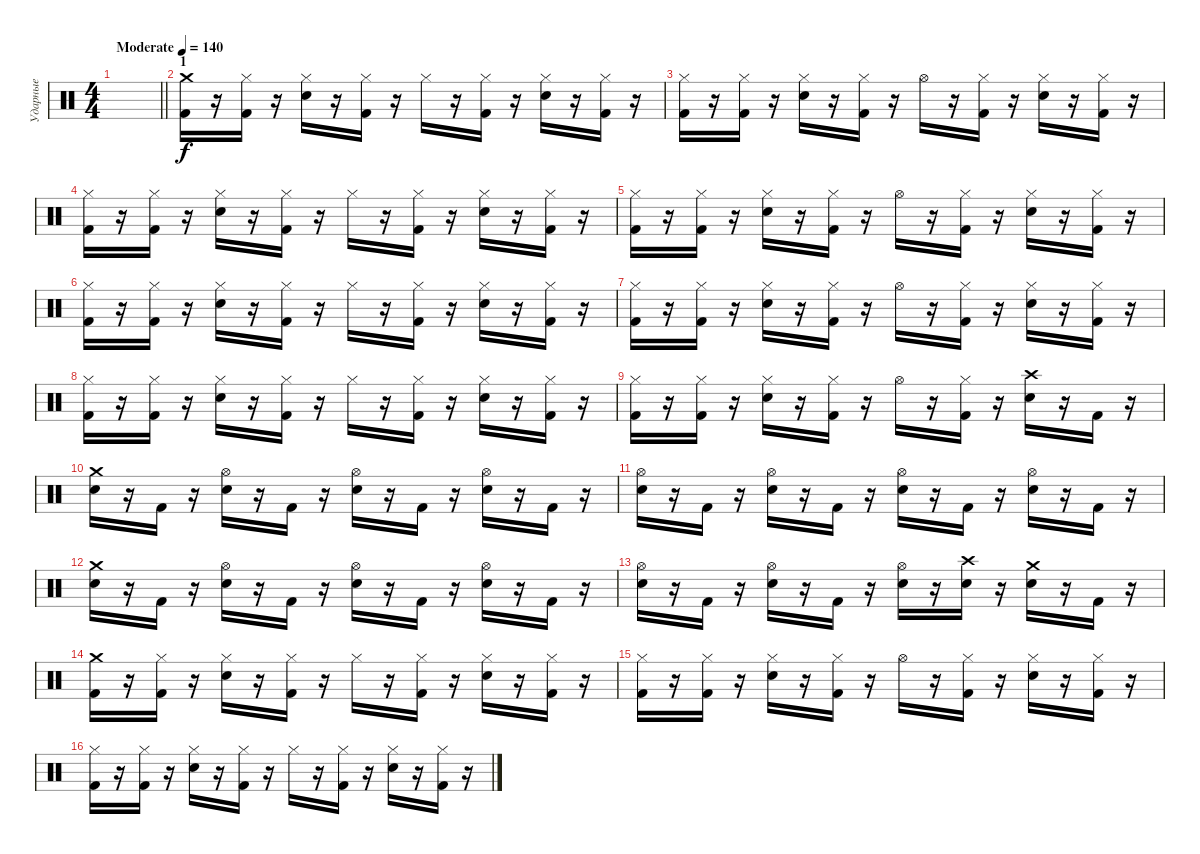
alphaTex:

\track ("Ударные" "Ударные") {instrument percussion}
\staff {score}
\articulation defaults
\ts (4 4)
\tempo (140 "Moderate")
\clef neutral
\barLineRight lightlight
\ks c
|
\section ("" "1")
("Crash medium (hit)" "Kick (hit) 2").16 r.16 ("Hi-Hat (closed)" "Kick (hit) 2").16 r.16 ("Hi-Hat (closed)" "Electric Snare (hit)").16 r.16 ("Hi-Hat (closed)" "Kick (hit) 2").16 r.16 "Hi-Hat (closed)".16 r.16 ("Hi-Hat (closed)" "Kick (hit) 2").16 r.16 ("Hi-Hat (closed)" "Electric Snare (hit)").16 r.16 ("Hi-Hat (closed)" "Kick (hit) 2").16 r.16 |
("Hi-Hat (closed)" "Kick (hit) 2").16 r.16 ("Hi-Hat (closed)" "Kick (hit) 2").16 r.16 ("Hi-Hat (closed)" "Electric Snare (hit)").16 r.16 ("Hi-Hat (closed)" "Kick (hit) 2").16 r.16 "Hi-Hat (open)".16 r.16 ("Hi-Hat (closed)" "Kick (hit) 2").16 r.16 ("Hi-Hat (closed)" "Electric Snare (hit)").16 r.16 ("Hi-Hat (closed)" "Kick (hit) 2").16 r.16 |
("Hi-Hat (closed)" "Kick (hit) 2").16 r.16 ("Hi-Hat (closed)" "Kick (hit) 2").16 r.16 ("Hi-Hat (closed)" "Electric Snare (hit)").16 r.16 ("Hi-Hat (closed)" "Kick (hit) 2").16 r.16 "Hi-Hat (closed)".16 r.16 ("Hi-Hat (closed)" "Kick (hit) 2").16 r.16 ("Hi-Hat (closed)" "Electric Snare (hit)").16 r.16 ("Hi-Hat (closed)" "Kick (hit) 2").16 r.16 |
("Hi-Hat (closed)" "Kick (hit) 2").16 r.16 ("Hi-Hat (closed)" "Kick (hit) 2").16 r.16 ("Hi-Hat (closed)" "Electric Snare (hit)").16 r.16 ("Hi-Hat (closed)" "Kick (hit) 2").16 r.16 "Hi-Hat (open)".16 r.16 ("Hi-Hat (closed)" "Kick (hit) 2").16 r.16 ("Hi-Hat (closed)" "Electric Snare (hit)").16 r.16 ("Hi-Hat (closed)" "Kick (hit) 2").16 r.16 |
("Hi-Hat (closed)" "Kick (hit) 2").16 r.16 ("Hi-Hat (closed)" "Kick (hit) 2").16 r.16 ("Hi-Hat (closed)" "Electric Snare (hit)").16 r.16 ("Hi-Hat (closed)" "Kick (hit) 2").16 r.16 "Hi-Hat (closed)".16 r.16 ("Hi-Hat (closed)" "Kick (hit) 2").16 r.16 ("Hi-Hat (closed)" "Electric Snare (hit)").16 r.16 ("Hi-Hat (closed)" "Kick (hit) 2").16 r.16 |
("Hi-Hat (closed)" "Kick (hit) 2").16 r.16 ("Hi-Hat (closed)" "Kick (hit) 2").16 r.16 ("Hi-Hat (closed)" "Electric Snare (hit)").16 r.16 ("Hi-Hat (closed)" "Kick (hit) 2").16 r.16 "Hi-Hat (open)".16 r.16 ("Hi-Hat (closed)" "Kick (hit) 2").16 r.16 ("Hi-Hat (closed)" "Electric Snare (hit)").16 r.16 ("Hi-Hat (closed)" "Kick (hit) 2").16 r.16 |
("Hi-Hat (closed)" "Kick (hit) 2").16 r.16 ("Hi-Hat (closed)" "Kick (hit) 2").16 r.16 ("Hi-Hat (closed)" "Electric Snare (hit)").16 r.16 ("Hi-Hat (closed)" "Kick (hit) 2").16 r.16 "Hi-Hat (closed)".16 r.16 ("Hi-Hat (closed)" "Kick (hit) 2").16 r.16 ("Hi-Hat (closed)" "Electric Snare (hit)").16 r.16 ("Hi-Hat (closed)" "Kick (hit) 2").16 r.16 |
("Hi-Hat (closed)" "Kick (hit) 2").16 r.16 ("Hi-Hat (closed)" "Kick (hit) 2").16 r.16 ("Hi-Hat (closed)" "Electric Snare (hit)").16 r.16 ("Hi-Hat (closed)" "Kick (hit) 2").16 r.16 "Hi-Hat (open)".16 r.16 ("Hi-Hat (closed)" "Kick (hit) 2").16 r.16 ("Crash high (hit)" "Electric Snare (hit)").16 r.16 "Kick (hit) 2".16 r.16 |
("Crash medium (hit)" "Electric Snare (hit)").16 r.16 "Kick (hit) 2".16 r.16 ("Hi-Hat (open)" "Electric Snare (hit)").16 r.16 "Kick (hit) 2".16 r.16 ("Hi-Hat (open)" "Electric Snare (hit)").16 r.16 "Kick (hit) 2".16 r.16 ("Hi-Hat (open)" "Electric Snare (hit)").16 r.16 "Kick (hit) 2".16 r.16 |
("Hi-Hat (open)" "Electric Snare (hit)").16 r.16 "Kick (hit) 2".16 r.16 ("Hi-Hat (open)" "Electric Snare (hit)").16 r.16 "Kick (hit) 2".16 r.16 ("Hi-Hat (open)" "Electric Snare (hit)").16 r.16 "Kick (hit) 2".16 r.16 ("Hi-Hat (open)" "Electric Snare (hit)").16 r.16 "Kick (hit) 2".16 r.16 |
("Crash medium (hit)" "Electric Snare (hit)").16 r.16 "Kick (hit) 2".16 r.16 ("Hi-Hat (open)" "Electric Snare (hit)").16 r.16 "Kick (hit) 2".16 r.16 ("Hi-Hat (open)" "Electric Snare (hit)").16 r.16 "Kick (hit) 2".16 r.16 ("Hi-Hat (open)" "Electric Snare (hit)").16 r.16 "Kick (hit) 2".16 r.16 |
("Hi-Hat (open)" "Electric Snare (hit)").16 r.16 "Kick (hit) 2".16 r.16 ("Hi-Hat (open)" "Electric Snare (hit)").16 r.16 "Kick (hit) 2".16 r.16 ("Hi-Hat (open)" "Electric Snare (hit)").16 r.16 ("Crash high (hit)" "Electric Snare (hit)").16 r.16 ("Crash medium (hit)" "Electric Snare (hit)").16 r.16 "Kick (hit) 2".16 r.16 |
("Crash medium (hit)" "Kick (hit) 2").16 r.16 ("Hi-Hat (closed)" "Kick (hit) 2").16 r.16 ("Hi-Hat (closed)" "Electric Snare (hit)").16 r.16 ("Hi-Hat (closed)" "Kick (hit) 2").16 r.16 "Hi-Hat (closed)".16 r.16 ("Hi-Hat (closed)" "Kick (hit) 2").16 r.16 ("Hi-Hat (closed)" "Electric Snare (hit)").16 r.16 ("Hi-Hat (closed)" "Kick (hit) 2").16 r.16 |
("Hi-Hat (closed)" "Kick (hit) 2").16 r.16 ("Hi-Hat (closed)" "Kick (hit) 2").16 r.16 ("Hi-Hat (closed)" "Electric Snare (hit)").16 r.16 ("Hi-Hat (closed)" "Kick (hit) 2").16 r.16 "Hi-Hat (open)".16 r.16 ("Hi-Hat (closed)" "Kick (hit) 2").16 r.16 ("Hi-Hat (closed)" "Electric Snare (hit)").16 r.16 ("Hi-Hat (closed)" "Kick (hit) 2").16 r.16 |
("Hi-Hat (closed)" "Kick (hit) 2").16 r.16 ("Hi-Hat (closed)" "Kick (hit) 2").16 r.16 ("Hi-Hat (closed)" "Electric Snare (hit)").16 r.16 ("Hi-Hat (closed)" "Kick (hit) 2").16 r.16 "Hi-Hat (closed)".16 r.16 ("Hi-Hat (closed)" "Kick (hit) 2").16 r.16 ("Hi-Hat (closed)" "Electric Snare (hit)").16 r.16 ("Hi-Hat (closed)" "Kick (hit) 2").16 r.16
